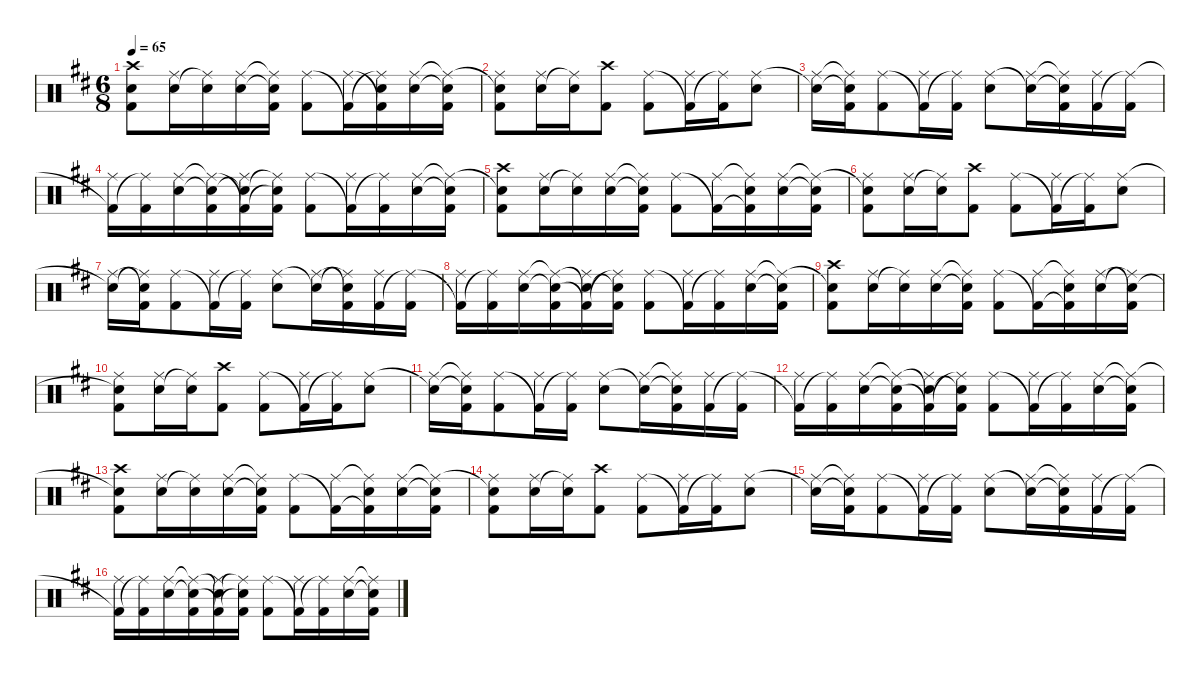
\hideDynamics
\bracketExtendMode nobrackets
\singleTrackTrackNamePolicy hidden
\multiTrackTrackNamePolicy hidden
\firstSystemTrackNameMode fullname
\firstSystemTrackNameOrientation horizontal
\otherSystemsTrackNameOrientation horizontal
\track ("Drums" "drm.") {instrument percussion}
\staff {score}
\articulation defaults
\ts (6 8)
\tempo 65
\clef neutral
\ks bminor
("Snare (hit) 2"{t acc forcenatural} "Kick (hit) 2"{acc forcenatural} "Crash high (hit)"{acc #}).8{dy ff beam Down} ("Snare (hit) 2"{acc forcenatural} "Ride (middle)"{acc #}).16{beam Down} ("Ride (middle)"{t acc #} "Snare (hit) 2"{acc forcenatural}).16{beam Down} ("Snare (hit) 2"{acc forcenatural} "Ride (middle)"{acc #}).16{beam Down} ("Snare (hit) 2"{t acc forcenatural} "Ride (middle)"{t acc #} "Kick (hit) 2"{acc forcenatural}).16{beam Down} ("Ride (middle)"{acc #} "Kick (hit) 2"{acc forcenatural}).8{beam Down} ("Kick (hit) 2"{t acc forcenatural} "Ride (middle)"{acc #}).16{beam Down} ("Ride (middle)"{t acc #} "Kick (hit) 2"{t acc forcenatural} "Snare (hit) 2"{acc forcenatural}).16{beam Down} ("Ride (middle)"{acc #} "Snare (hit) 2"{acc forcenatural}).16{beam Down} ("Ride (middle)"{t acc #} "Snare (hit) 2"{t acc forcenatural} "Kick (hit) 2"{acc forcenatural}).16{beam Down} |
("Snare (hit) 2"{t acc forcenatural} "Kick (hit) 2"{acc forcenatural} "Ride (middle)"{acc #}).8{beam Down} ("Snare (hit) 2"{acc forcenatural} "Ride (middle)"{acc #}).16{beam Down} ("Ride (middle)"{t acc #} "Snare (hit) 2"{acc forcenatural}).16{beam Down} ("Kick (hit) 2"{acc forcenatural} "Crash high (hit)"{acc #}).8{beam Down} ("Ride (middle)"{acc #} "Kick (hit) 2"{acc forcenatural}).8{beam Down} ("Kick (hit) 2"{t acc forcenatural} "Ride (middle)"{acc #}).16{beam Down} ("Ride (middle)"{t acc #} "Kick (hit) 2"{acc forcenatural}).16{beam Down} ("Ride (middle)"{acc #} "Snare (hit) 2"{acc forcenatural}).8{beam Down} |
("Snare (hit) 2"{t acc forcenatural} "Ride (middle)"{acc #}).16{beam Down} ("Snare (hit) 2"{t acc forcenatural} "Ride (middle)"{t acc #} "Kick (hit) 2"{acc forcenatural}).16{beam Down} ("Ride (middle)"{acc #} "Kick (hit) 2"{acc forcenatural}).8{beam Down} ("Kick (hit) 2"{t acc forcenatural} "Ride (middle)"{acc #}).16{beam Down} ("Ride (middle)"{t acc #} "Kick (hit) 2"{acc forcenatural}).16{beam Down} ("Ride (middle)"{acc #} "Snare (hit) 2"{acc forcenatural}).8{beam Down} ("Snare (hit) 2"{t acc forcenatural} "Ride (middle)"{acc #}).16{beam Down} ("Snare (hit) 2"{t acc forcenatural} "Ride (middle)"{t acc #} "Kick (hit) 2"{acc forcenatural}).16{beam Down} ("Kick (hit) 2"{acc forcenatural} "Ride (middle)"{acc #}).16{beam Down} ("Ride (middle)"{t acc #} "Kick (hit) 2"{acc forcenatural}).16{beam Down} |
("Kick (hit) 2"{t acc forcenatural} "Ride (middle)"{acc #}).16{beam Down} ("Ride (middle)"{t acc #} "Kick (hit) 2"{acc forcenatural}).16{beam Down} ("Ride (middle)"{acc #} "Snare (hit) 2"{acc forcenatural}).16{beam Down} ("Ride (middle)"{t acc #} "Snare (hit) 2"{t acc forcenatural} "Kick (hit) 2"{acc forcenatural}).16{beam Down} ("Kick (hit) 2"{t acc forcenatural} "Snare (hit) 2"{t acc forcenatural} "Ride (middle)"{acc #}).16{beam Down} ("Snare (hit) 2"{t acc forcenatural} "Ride (middle)"{t acc #} "Kick (hit) 2"{acc forcenatural}).16{beam Down} ("Ride (middle)"{acc #} "Kick (hit) 2"{acc forcenatural}).8{beam Down} ("Kick (hit) 2"{t acc forcenatural} "Ride (middle)"{acc #}).16{beam Down} ("Ride (middle)"{t acc #} "Kick (hit) 2"{acc forcenatural}).16{beam Down} ("Ride (middle)"{acc #} "Snare (hit) 2"{acc forcenatural}).16{beam Down} ("Ride (middle)"{t acc #} "Snare (hit) 2"{t acc forcenatural} "Kick (hit) 2"{acc forcenatural}).16{beam Down} |
("Snare (hit) 2"{t acc forcenatural} "Kick (hit) 2"{acc forcenatural} "Crash high (hit)"{acc #}).8{beam Down} ("Snare (hit) 2"{acc forcenatural} "Ride (middle)"{acc #}).16{beam Down} ("Ride (middle)"{t acc #} "Snare (hit) 2"{acc forcenatural}).16{beam Down} ("Snare (hit) 2"{acc forcenatural} "Ride (middle)"{acc #}).16{beam Down} ("Snare (hit) 2"{t acc forcenatural} "Ride (middle)"{t acc #} "Kick (hit) 2"{acc forcenatural}).16{beam Down} ("Ride (middle)"{acc #} "Kick (hit) 2"{acc forcenatural}).8{beam Down} ("Kick (hit) 2"{t acc forcenatural} "Ride (middle)"{acc #}).16{beam Down} ("Kick (hit) 2"{t acc forcenatural} "Ride (middle)"{t acc #} "Snare (hit) 2"{acc forcenatural}).16{beam Down} ("Ride (middle)"{acc #} "Snare (hit) 2"{acc forcenatural}).16{beam Down} ("Ride (middle)"{t acc #} "Snare (hit) 2"{t acc forcenatural} "Kick (hit) 2"{acc forcenatural}).16{beam Down} |
("Snare (hit) 2"{t acc forcenatural} "Kick (hit) 2"{acc forcenatural} "Ride (middle)"{acc #}).8{beam Down} ("Snare (hit) 2"{acc forcenatural} "Ride (middle)"{acc #}).16{beam Down} ("Ride (middle)"{t acc #} "Snare (hit) 2"{acc forcenatural}).16{beam Down} ("Kick (hit) 2"{acc forcenatural} "Crash high (hit)"{acc #}).8{beam Down} ("Ride (middle)"{acc #} "Kick (hit) 2"{acc forcenatural}).8{beam Down} ("Kick (hit) 2"{t acc forcenatural} "Ride (middle)"{acc #}).16{beam Down} ("Ride (middle)"{t acc #} "Kick (hit) 2"{acc forcenatural}).16{beam Down} ("Ride (middle)"{acc #} "Snare (hit) 2"{acc forcenatural}).8{beam Down} |
("Snare (hit) 2"{t acc forcenatural} "Ride (middle)"{acc #}).16{beam Down} ("Ride (middle)"{t acc #} "Snare (hit) 2"{t acc forcenatural} "Kick (hit) 2"{acc forcenatural}).16{beam Down} ("Ride (middle)"{acc #} "Kick (hit) 2"{acc forcenatural}).8{beam Down} ("Kick (hit) 2"{t acc forcenatural} "Ride (middle)"{acc #}).16{beam Down} ("Ride (middle)"{t acc #} "Kick (hit) 2"{acc forcenatural}).16{beam Down} ("Ride (middle)"{acc #} "Snare (hit) 2"{acc forcenatural}).8{beam Down} ("Snare (hit) 2"{t acc forcenatural} "Ride (middle)"{acc #}).16{beam Down} ("Ride (middle)"{t acc #} "Snare (hit) 2"{t acc forcenatural} "Kick (hit) 2"{acc forcenatural}).16{beam Down} ("Kick (hit) 2"{acc forcenatural} "Ride (middle)"{acc #}).16{beam Down} ("Ride (middle)"{t acc #} "Kick (hit) 2"{acc forcenatural}).16{beam Down} |
("Kick (hit) 2"{t acc forcenatural} "Ride (middle)"{acc #}).16{beam Down} ("Ride (middle)"{t acc #} "Kick (hit) 2"{acc forcenatural}).16{beam Down} ("Ride (middle)"{acc #} "Snare (hit) 2"{acc forcenatural}).16{beam Down} ("Ride (middle)"{t acc #} "Snare (hit) 2"{t acc forcenatural} "Kick (hit) 2"{acc forcenatural}).16{beam Down} ("Snare (hit) 2"{t acc forcenatural} "Kick (hit) 2"{t acc forcenatural} "Ride (middle)"{acc #}).16{beam Down} ("Snare (hit) 2"{t acc forcenatural} "Ride (middle)"{t acc #} "Kick (hit) 2"{acc forcenatural}).16{beam Down} ("Ride (middle)"{acc #} "Kick (hit) 2"{acc forcenatural}).8{beam Down} ("Kick (hit) 2"{t acc forcenatural} "Ride (middle)"{acc #}).16{beam Down} ("Ride (middle)"{t acc #} "Kick (hit) 2"{acc forcenatural}).16{beam Down} ("Ride (middle)"{acc #} "Snare (hit) 2"{acc forcenatural}).16{beam Down} ("Ride (middle)"{t acc #} "Snare (hit) 2"{t acc forcenatural} "Kick (hit) 2"{acc forcenatural}).16{beam Down} |
("Snare (hit) 2"{t acc forcenatural} "Kick (hit) 2"{acc forcenatural} "Crash high (hit)"{acc #}).8{beam Down} ("Snare (hit) 2"{acc forcenatural} "Ride (middle)"{acc #}).16{beam Down} ("Ride (middle)"{t acc #} "Snare (hit) 2"{acc forcenatural}).16{beam Down} ("Snare (hit) 2"{acc forcenatural} "Ride (middle)"{acc #}).16{beam Down} ("Snare (hit) 2"{t acc forcenatural} "Ride (middle)"{t acc #} "Kick (hit) 2"{acc forcenatural}).16{beam Down} ("Ride (middle)"{acc #} "Kick (hit) 2"{acc forcenatural}).8{beam Down} ("Kick (hit) 2"{t acc forcenatural} "Ride (middle)"{acc #}).16{beam Down} ("Kick (hit) 2"{t acc forcenatural} "Ride (middle)"{t acc #} "Snare (hit) 2"{acc forcenatural}).16{beam Down} ("Ride (middle)"{acc #} "Snare (hit) 2"{acc forcenatural}).16{beam Down} ("Snare (hit) 2"{t acc forcenatural} "Ride (middle)"{t acc #} "Kick (hit) 2"{acc forcenatural}).16{beam Down} |
("Snare (hit) 2"{t acc forcenatural} "Kick (hit) 2"{acc forcenatural} "Ride (middle)"{acc #}).8{beam Down} ("Snare (hit) 2"{acc forcenatural} "Ride (middle)"{acc #}).16{beam Down} ("Ride (middle)"{t acc #} "Snare (hit) 2"{acc forcenatural}).16{beam Down} ("Kick (hit) 2"{acc forcenatural} "Crash high (hit)"{acc #}).8{beam Down} ("Ride (middle)"{acc #} "Kick (hit) 2"{acc forcenatural}).8{beam Down} ("Kick (hit) 2"{t acc forcenatural} "Ride (middle)"{acc #}).16{beam Down} ("Ride (middle)"{t acc #} "Kick (hit) 2"{acc forcenatural}).16{beam Down} ("Ride (middle)"{acc #} "Snare (hit) 2"{acc forcenatural}).8{beam Down} |
("Snare (hit) 2"{t acc forcenatural} "Ride (middle)"{acc #}).16{beam Down} ("Snare (hit) 2"{t acc forcenatural} "Ride (middle)"{t acc #} "Kick (hit) 2"{acc forcenatural}).16{beam Down} ("Ride (middle)"{acc #} "Kick (hit) 2"{acc forcenatural}).8{beam Down} ("Kick (hit) 2"{t acc forcenatural} "Ride (middle)"{acc #}).16{beam Down} ("Ride (middle)"{t acc #} "Kick (hit) 2"{acc forcenatural}).16{beam Down} ("Ride (middle)"{acc #} "Snare (hit) 2"{acc forcenatural}).8{beam Down} ("Snare (hit) 2"{t acc forcenatural} "Ride (middle)"{acc #}).16{beam Down} ("Snare (hit) 2"{t acc forcenatural} "Ride (middle)"{t acc #} "Kick (hit) 2"{acc forcenatural}).16{beam Down} ("Kick (hit) 2"{acc forcenatural} "Ride (middle)"{acc #}).16{beam Down} ("Ride (middle)"{t acc #} "Kick (hit) 2"{acc forcenatural}).16{beam Down} |
("Kick (hit) 2"{t acc forcenatural} "Ride (middle)"{acc #}).16{beam Down} ("Ride (middle)"{t acc #} "Kick (hit) 2"{acc forcenatural}).16{beam Down} ("Ride (middle)"{acc #} "Snare (hit) 2"{acc forcenatural}).16{beam Down} ("Ride (middle)"{t acc #} "Snare (hit) 2"{t acc forcenatural} "Kick (hit) 2"{acc forcenatural}).16{beam Down} ("Snare (hit) 2"{t acc forcenatural} "Kick (hit) 2"{t acc forcenatural} "Ride (middle)"{acc #}).16{beam Down} ("Snare (hit) 2"{t acc forcenatural} "Ride (middle)"{t acc #} "Kick (hit) 2"{acc forcenatural}).16{beam Down} ("Ride (middle)"{acc #} "Kick (hit) 2"{acc forcenatural}).8{beam Down} ("Kick (hit) 2"{t acc forcenatural} "Ride (middle)"{acc #}).16{beam Down} ("Ride (middle)"{t acc #} "Kick (hit) 2"{acc forcenatural}).16{beam Down} ("Ride (middle)"{acc #} "Snare (hit) 2"{acc forcenatural}).16{beam Down} ("Ride (middle)"{t acc #} "Snare (hit) 2"{t acc forcenatural} "Kick (hit) 2"{acc forcenatural}).16{beam Down} |
("Snare (hit) 2"{t acc forcenatural} "Kick (hit) 2"{acc forcenatural} "Crash high (hit)"{acc #}).8{beam Down} ("Snare (hit) 2"{acc forcenatural} "Ride (middle)"{acc #}).16{beam Down} ("Ride (middle)"{t acc #} "Snare (hit) 2"{acc forcenatural}).16{beam Down} ("Snare (hit) 2"{acc forcenatural} "Ride (middle)"{acc #}).16{beam Down} ("Snare (hit) 2"{t acc forcenatural} "Ride (middle)"{t acc #} "Kick (hit) 2"{acc forcenatural}).16{beam Down} ("Ride (middle)"{acc #} "Kick (hit) 2"{acc forcenatural}).8{beam Down} ("Kick (hit) 2"{t acc forcenatural} "Ride (middle)"{acc #}).16{beam Down} ("Kick (hit) 2"{t acc forcenatural} "Ride (middle)"{t acc #} "Snare (hit) 2"{acc forcenatural}).16{beam Down} ("Ride (middle)"{acc #} "Snare (hit) 2"{acc forcenatural}).16{beam Down} ("Ride (middle)"{t acc #} "Snare (hit) 2"{t acc forcenatural} "Kick (hit) 2"{acc forcenatural}).16{beam Down} |
("Snare (hit) 2"{t acc forcenatural} "Kick (hit) 2"{acc forcenatural} "Ride (middle)"{acc #}).8{beam Down} ("Snare (hit) 2"{acc forcenatural} "Ride (middle)"{acc #}).16{beam Down} ("Ride (middle)"{t acc #} "Snare (hit) 2"{acc forcenatural}).16{beam Down} ("Kick (hit) 2"{acc forcenatural} "Crash high (hit)"{acc #}).8{beam Down} ("Ride (middle)"{acc #} "Kick (hit) 2"{acc forcenatural}).8{beam Down} ("Kick (hit) 2"{t acc forcenatural} "Ride (middle)"{acc #}).16{beam Down} ("Ride (middle)"{t acc #} "Kick (hit) 2"{acc forcenatural}).16{beam Down} ("Ride (middle)"{acc #} "Snare (hit) 2"{acc forcenatural}).8{beam Down} |
("Snare (hit) 2"{t acc forcenatural} "Ride (middle)"{acc #}).16{beam Down} ("Snare (hit) 2"{t acc forcenatural} "Ride (middle)"{t acc #} "Kick (hit) 2"{acc forcenatural}).16{beam Down} ("Ride (middle)"{acc #} "Kick (hit) 2"{acc forcenatural}).8{beam Down} ("Kick (hit) 2"{t acc forcenatural} "Ride (middle)"{acc #}).16{beam Down} ("Ride (middle)"{t acc #} "Kick (hit) 2"{acc forcenatural}).16{beam Down} ("Ride (middle)"{acc #} "Snare (hit) 2"{acc forcenatural}).8{beam Down} ("Snare (hit) 2"{t acc forcenatural} "Ride (middle)"{acc #}).16{beam Down} ("Snare (hit) 2"{t acc forcenatural} "Ride (middle)"{t acc #} "Kick (hit) 2"{acc forcenatural}).16{beam Down} ("Kick (hit) 2"{acc forcenatural} "Ride (middle)"{acc #}).16{beam Down} ("Ride (middle)"{t acc #} "Kick (hit) 2"{acc forcenatural}).16{beam Down} |
("Kick (hit) 2"{t acc forcenatural} "Ride (middle)"{acc #}).16{beam Down} ("Ride (middle)"{t acc #} "Kick (hit) 2"{acc forcenatural}).16{beam Down} ("Ride (middle)"{acc #} "Snare (hit) 2"{acc forcenatural}).16{beam Down} ("Ride (middle)"{t acc #} "Snare (hit) 2"{t acc forcenatural} "Kick (hit) 2"{acc forcenatural}).16{beam Down} ("Snare (hit) 2"{t acc forcenatural} "Kick (hit) 2"{t acc forcenatural} "Ride (middle)"{acc #}).16{beam Down} ("Ride (middle)"{t acc #} "Snare (hit) 2"{t acc forcenatural} "Kick (hit) 2"{acc forcenatural}).16{beam Down} ("Ride (middle)"{acc #} "Kick (hit) 2"{acc forcenatural}).8{beam Down} ("Kick (hit) 2"{t acc forcenatural} "Ride (middle)"{acc #}).16{beam Down} ("Ride (middle)"{t acc #} "Kick (hit) 2"{acc forcenatural}).16{beam Down} ("Ride (middle)"{acc #} "Snare (hit) 2"{acc forcenatural}).16{beam Down} ("Ride (middle)"{t acc #} "Snare (hit) 2"{t acc forcenatural} "Kick (hit) 2"{acc forcenatural}).16{beam Down}
